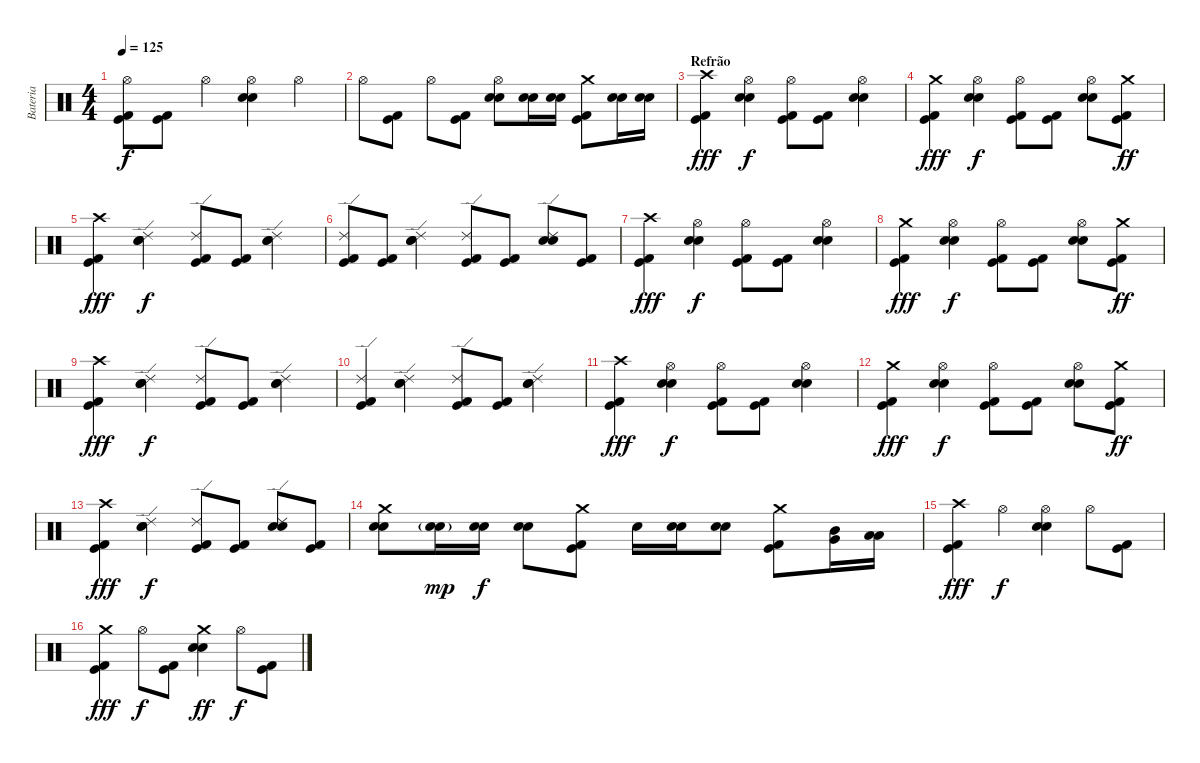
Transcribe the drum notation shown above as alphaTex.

\track ("Bateria" "Bateria") {instrument percussion}
\staff {score}
\articulation defaults
\ts (4 4)
\tempo 125
\clef neutral
\ks c
("Hi-Hat (open)" "Kick (hit) 2" "Kick (hit)").8{dy f} ("Kick (hit) 2" "Kick (hit)").8 "Hi-Hat (open)".4 ("Hi-Hat (open)" "Electric Snare (hit)" "Snare (hit) 2").4 "Hi-Hat (open)".4 |
"Hi-Hat (open)".8 ("Kick (hit) 2" "Kick (hit)").8 "Hi-Hat (open)".8 ("Kick (hit) 2" "Kick (hit)").8 ("Hi-Hat (open)" "Electric Snare (hit)" "Snare (hit) 2").8 ("Electric Snare (hit)" "Snare (hit) 2").16 ("Electric Snare (hit)" "Snare (hit) 2").16 ("Crash medium (hit)" "Kick (hit) 2" "Kick (hit)").8 ("Electric Snare (hit)" "Snare (hit) 2").16 ("Electric Snare (hit)" "Snare (hit) 2").16 |
\section ("" "Refrão")
("Crash high (hit)" "Kick (hit) 2" "Kick (hit)").4{dy fff} ("Hi-Hat (open)" "Electric Snare (hit)" "Snare (hit) 2").4{dy f} ("Hi-Hat (open)" "Kick (hit) 2" "Kick (hit)").8 ("Kick (hit) 2" "Kick (hit)").8 ("Hi-Hat (open)" "Electric Snare (hit)" "Snare (hit) 2").4 |
("Crash medium (hit)" "Kick (hit) 2" "Kick (hit)").4{dy fff} ("Hi-Hat (open)" "Electric Snare (hit)" "Snare (hit) 2").4{dy f} ("Hi-Hat (open)" "Kick (hit) 2" "Kick (hit)").8 ("Kick (hit) 2" "Kick (hit)").8 ("Hi-Hat (open)" "Electric Snare (hit)" "Snare (hit) 2").8 ("Crash medium (hit)" "Kick (hit) 2" "Kick (hit)").8{dy ff} |
("Crash high (hit)" "Kick (hit) 2" "Kick (hit)").4{dy fff} ("Ride (edge) 2" "Electric Snare (hit)" "Snare (hit) 2").4{dy f} ("Ride (edge) 2" "Kick (hit) 2" "Kick (hit)").8 ("Kick (hit) 2" "Kick (hit)").8 ("Ride (edge) 2" "Electric Snare (hit)" "Snare (hit) 2").4 |
("Ride (edge) 2" "Kick (hit) 2" "Kick (hit)").8 ("Kick (hit) 2" "Kick (hit)").8 ("Ride (edge) 2" "Electric Snare (hit)" "Snare (hit) 2").4 ("Ride (edge) 2" "Kick (hit) 2" "Kick (hit)").8 ("Kick (hit) 2" "Kick (hit)").8 ("Ride (edge) 2" "Electric Snare (hit)" "Snare (hit) 2").8 ("Kick (hit) 2" "Kick (hit)").8 |
("Crash high (hit)" "Kick (hit) 2" "Kick (hit)").4{dy fff} ("Hi-Hat (open)" "Electric Snare (hit)" "Snare (hit) 2").4{dy f} ("Hi-Hat (open)" "Kick (hit) 2" "Kick (hit)").8 ("Kick (hit) 2" "Kick (hit)").8 ("Hi-Hat (open)" "Electric Snare (hit)" "Snare (hit) 2").4 |
("Crash medium (hit)" "Kick (hit) 2" "Kick (hit)").4{dy fff} ("Hi-Hat (open)" "Electric Snare (hit)" "Snare (hit) 2").4{dy f} ("Hi-Hat (open)" "Kick (hit) 2" "Kick (hit)").8 ("Kick (hit) 2" "Kick (hit)").8 ("Hi-Hat (open)" "Electric Snare (hit)" "Snare (hit) 2").8 ("Crash medium (hit)" "Kick (hit) 2" "Kick (hit)").8{dy ff} |
("Crash high (hit)" "Kick (hit) 2" "Kick (hit)").4{dy fff} ("Ride (edge) 2" "Electric Snare (hit)" "Snare (hit) 2").4{dy f} ("Ride (edge) 2" "Kick (hit) 2" "Kick (hit)").8 ("Kick (hit) 2" "Kick (hit)").8 ("Ride (edge) 2" "Electric Snare (hit)" "Snare (hit) 2").4 |
("Ride (edge) 2" "Kick (hit) 2" "Kick (hit)").4 ("Ride (edge) 2" "Electric Snare (hit)" "Snare (hit) 2").4 ("Ride (edge) 2" "Kick (hit) 2" "Kick (hit)").8 ("Kick (hit) 2" "Kick (hit)").8 ("Ride (edge) 2" "Electric Snare (hit)" "Snare (hit) 2").4 |
("Crash high (hit)" "Kick (hit) 2" "Kick (hit)").4{dy fff} ("Hi-Hat (open)" "Electric Snare (hit)" "Snare (hit) 2").4{dy f} ("Hi-Hat (open)" "Kick (hit) 2" "Kick (hit)").8 ("Kick (hit) 2" "Kick (hit)").8 ("Hi-Hat (open)" "Electric Snare (hit)" "Snare (hit) 2").4 |
("Crash medium (hit)" "Kick (hit) 2" "Kick (hit)").4{dy fff} ("Hi-Hat (open)" "Electric Snare (hit)" "Snare (hit) 2").4{dy f} ("Hi-Hat (open)" "Kick (hit) 2" "Kick (hit)").8 ("Kick (hit) 2" "Kick (hit)").8 ("Hi-Hat (open)" "Electric Snare (hit)" "Snare (hit) 2").8 ("Crash medium (hit)" "Kick (hit) 2" "Kick (hit)").8{dy ff} |
("Crash high (hit)" "Kick (hit) 2" "Kick (hit)").4{dy fff} ("Ride (edge) 2" "Electric Snare (hit)" "Snare (hit) 2").4{dy f} ("Ride (edge) 2" "Kick (hit) 2" "Kick (hit)").8 ("Kick (hit) 2" "Kick (hit)").8 ("Ride (edge) 2" "Electric Snare (hit)" "Snare (hit) 2").8 ("Kick (hit) 2" "Kick (hit)").8 |
("Crash medium (hit)" "Electric Snare (hit)" "Snare (hit) 2").8 ("Electric Snare (hit)"{g} "Snare (hit) 2"{g}).16{dy mp} ("Electric Snare (hit)" "Snare (hit) 2").16{dy f} ("Electric Snare (hit)" "Snare (hit) 2").8 ("Crash medium (hit)" "Kick (hit) 2" "Kick (hit)").8 "Snare (hit)"{x}.16 ("Electric Snare (hit)" "Snare (hit) 2").16 ("Electric Snare (hit)" "Snare (hit) 2").8 ("Crash medium (hit)" "Kick (hit) 2" "Kick (hit)").8 ("Mid Tom (hit)" "Very Low Tom (hit)").16 ("Low Tom (hit)" "Low Floor Tom (hit)").16 |
("Crash high (hit)" "Kick (hit) 2" "Kick (hit)").4{dy fff} "Hi-Hat (open)".4{dy f} ("Hi-Hat (open)" "Electric Snare (hit)" "Snare (hit) 2").4 "Hi-Hat (open)".8 ("Kick (hit) 2" "Kick (hit)").8 |
("Crash medium (hit)" "Kick (hit) 2" "Kick (hit)").4{dy fff} "Hi-Hat (open)".8{dy f} ("Kick (hit) 2" "Kick (hit)").8 ("Crash medium (hit)" "Electric Snare (hit)" "Snare (hit) 2").4{dy ff} "Hi-Hat (open)".8{dy f} ("Kick (hit) 2" "Kick (hit)").8
